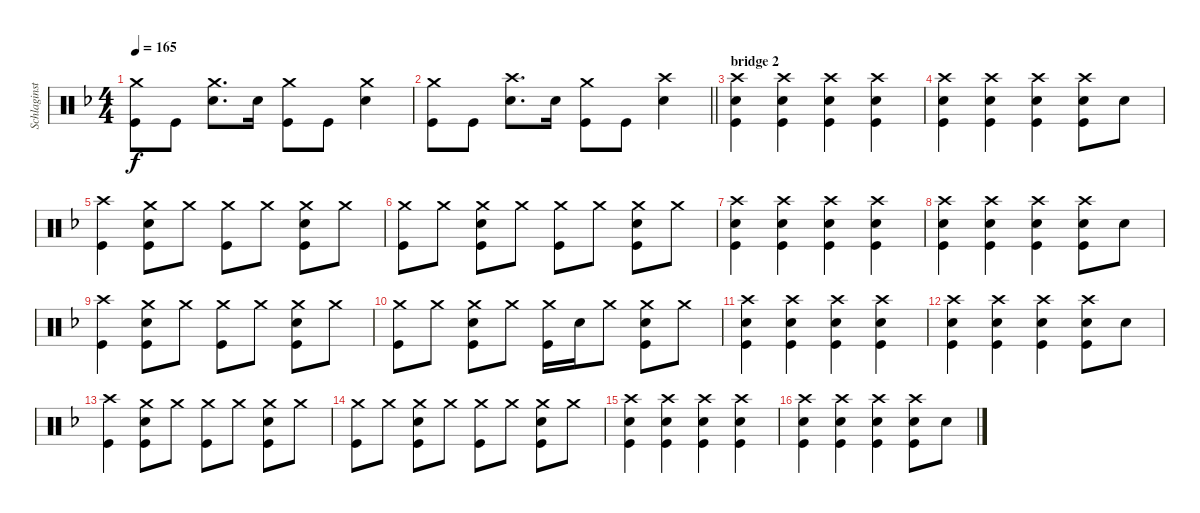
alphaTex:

\track ("Schlaginstrumente - Auswahl" "Schlaginst") {instrument percussion}
\staff {score}
\articulation defaults
\ts (4 4)
\tempo 165
\clef neutral
\ks f
("Crash medium (hit)" "Kick (hit)").8{dy f} "Kick (hit)".8 ("Crash medium (hit)" "Snare (hit) 2").8{d} "Snare (hit) 2".16 ("Crash medium (hit)" "Kick (hit)").8 "Kick (hit)".8 ("Crash medium (hit)" "Snare (hit) 2").4 |
\barLineRight lightlight
("Crash medium (hit)" "Kick (hit)").8 "Kick (hit)".8 ("Crash high (hit)" "Snare (hit) 2").8{d} "Snare (hit) 2".16 ("Crash medium (hit)" "Kick (hit)").8 "Kick (hit)".8 ("Crash high (hit)" "Snare (hit) 2").4 |
\section ("" "bridge 2")
("Crash high (hit)" "Snare (hit) 2" "Kick (hit)").4 ("Crash high (hit)" "Snare (hit) 2" "Kick (hit)").4 ("Crash high (hit)" "Snare (hit) 2" "Kick (hit)").4 ("Crash high (hit)" "Snare (hit) 2" "Kick (hit)").4 |
("Crash high (hit)" "Snare (hit) 2" "Kick (hit)").4 ("Crash high (hit)" "Snare (hit) 2" "Kick (hit)").4 ("Crash high (hit)" "Snare (hit) 2" "Kick (hit)").4 ("Crash high (hit)" "Snare (hit) 2" "Kick (hit)").8 "Snare (hit) 2".8 |
("Crash high (hit)" "Kick (hit)").4 ("Crash medium (hit)" "Snare (hit) 2" "Kick (hit)").8 "Crash medium (hit)".8 ("Crash medium (hit)" "Kick (hit)").8 "Crash medium (hit)".8 ("Crash medium (hit)" "Snare (hit) 2" "Kick (hit)").8 "Crash medium (hit)".8 |
("Crash medium (hit)" "Kick (hit)").8 "Crash medium (hit)".8 ("Crash medium (hit)" "Snare (hit) 2" "Kick (hit)").8 "Crash medium (hit)".8 ("Crash medium (hit)" "Kick (hit)").8 "Crash medium (hit)".8 ("Crash medium (hit)" "Snare (hit) 2" "Kick (hit)").8 "Crash medium (hit)".8 |
("Crash high (hit)" "Snare (hit) 2" "Kick (hit)").4 ("Crash high (hit)" "Snare (hit) 2" "Kick (hit)").4 ("Crash high (hit)" "Snare (hit) 2" "Kick (hit)").4 ("Crash high (hit)" "Snare (hit) 2" "Kick (hit)").4 |
("Crash high (hit)" "Snare (hit) 2" "Kick (hit)").4 ("Crash high (hit)" "Snare (hit) 2" "Kick (hit)").4 ("Crash high (hit)" "Snare (hit) 2" "Kick (hit)").4 ("Crash high (hit)" "Snare (hit) 2" "Kick (hit)").8 "Snare (hit) 2".8 |
("Crash high (hit)" "Kick (hit)").4 ("Crash medium (hit)" "Snare (hit) 2" "Kick (hit)").8 "Crash medium (hit)".8 ("Crash medium (hit)" "Kick (hit)").8 "Crash medium (hit)".8 ("Crash medium (hit)" "Snare (hit) 2" "Kick (hit)").8 "Crash medium (hit)".8 |
("Crash medium (hit)" "Kick (hit)").8 "Crash medium (hit)".8 ("Crash medium (hit)" "Snare (hit) 2" "Kick (hit)").8 "Crash medium (hit)".8 ("Crash medium (hit)" "Kick (hit)").16 "Snare (hit) 2".16 "Crash medium (hit)".8 ("Crash medium (hit)" "Snare (hit) 2" "Kick (hit)").8 "Crash medium (hit)".8 |
("Crash high (hit)" "Snare (hit) 2" "Kick (hit)").4 ("Crash high (hit)" "Snare (hit) 2" "Kick (hit)").4 ("Crash high (hit)" "Snare (hit) 2" "Kick (hit)").4 ("Crash high (hit)" "Snare (hit) 2" "Kick (hit)").4 |
("Crash high (hit)" "Snare (hit) 2" "Kick (hit)").4 ("Crash high (hit)" "Snare (hit) 2" "Kick (hit)").4 ("Crash high (hit)" "Snare (hit) 2" "Kick (hit)").4 ("Crash high (hit)" "Snare (hit) 2" "Kick (hit)").8 "Snare (hit) 2".8 |
("Crash high (hit)" "Kick (hit)").4 ("Crash medium (hit)" "Snare (hit) 2" "Kick (hit)").8 "Crash medium (hit)".8 ("Crash medium (hit)" "Kick (hit)").8 "Crash medium (hit)".8 ("Crash medium (hit)" "Snare (hit) 2" "Kick (hit)").8 "Crash medium (hit)".8 |
("Crash medium (hit)" "Kick (hit)").8 "Crash medium (hit)".8 ("Crash medium (hit)" "Snare (hit) 2" "Kick (hit)").8 "Crash medium (hit)".8 ("Crash medium (hit)" "Kick (hit)").8 "Crash medium (hit)".8 ("Crash medium (hit)" "Snare (hit) 2" "Kick (hit)").8 "Crash medium (hit)".8 |
("Crash high (hit)" "Snare (hit) 2" "Kick (hit)").4 ("Crash high (hit)" "Snare (hit) 2" "Kick (hit)").4 ("Crash high (hit)" "Snare (hit) 2" "Kick (hit)").4 ("Crash high (hit)" "Snare (hit) 2" "Kick (hit)").4 |
("Crash high (hit)" "Snare (hit) 2" "Kick (hit)").4 ("Crash high (hit)" "Snare (hit) 2" "Kick (hit)").4 ("Crash high (hit)" "Snare (hit) 2" "Kick (hit)").4 ("Crash high (hit)" "Snare (hit) 2" "Kick (hit)").8 "Snare (hit) 2".8
